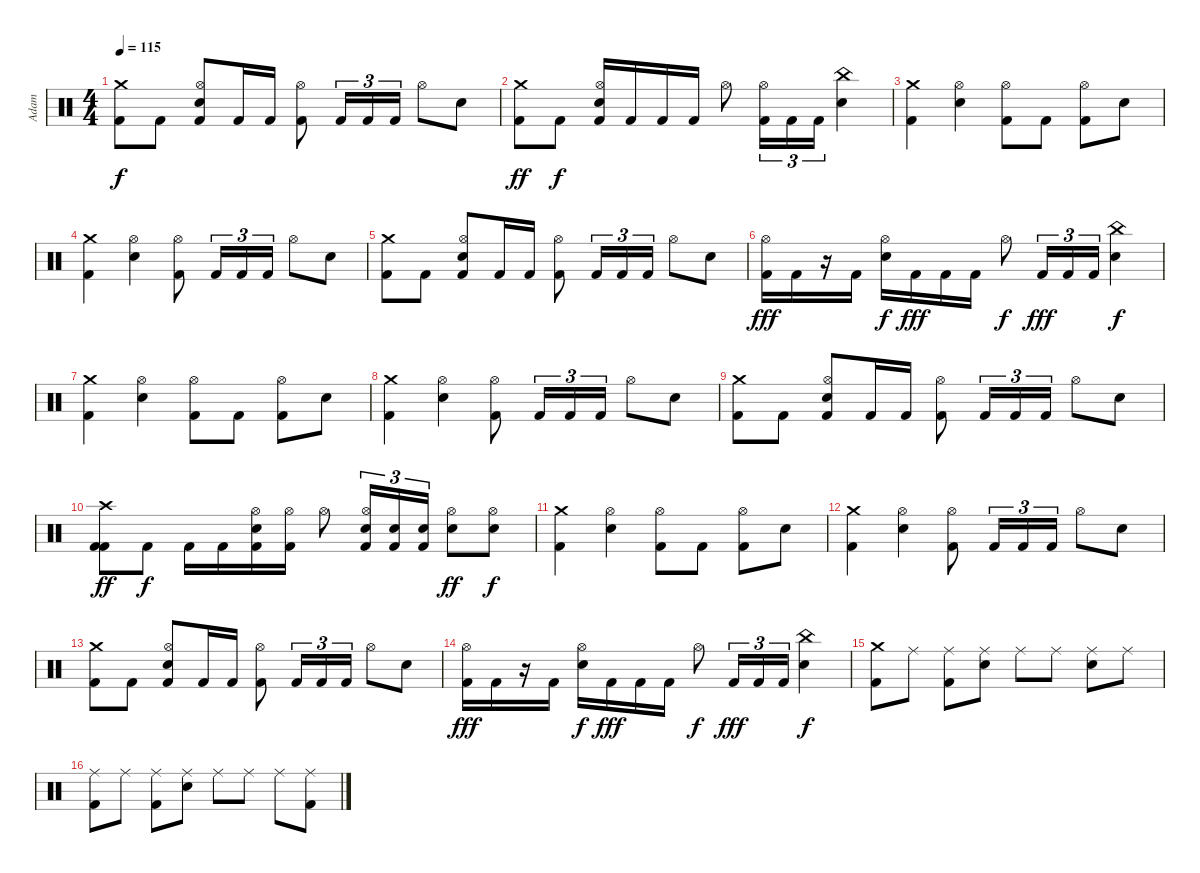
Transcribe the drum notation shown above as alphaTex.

\track ("Adam" "Adam") {instrument percussion}
\staff {score}
\articulation defaults
\ts (4 4)
\tempo 115
\clef neutral
\ks c
("Crash medium (hit)" "Kick (hit) 2").8{dy f} "Kick (hit) 2".8 ("Hi-Hat (open)" "Electric Snare (hit)" "Kick (hit) 2").8 "Kick (hit) 2".16 "Kick (hit) 2".16 ("Hi-Hat (open)" "Kick (hit) 2").8 "Kick (hit) 2".16{tu (3 2)} "Kick (hit) 2".16{tu (3 2)} "Kick (hit) 2".16{tu (3 2)} "Hi-Hat (open)".8 "Electric Snare (hit)".8 |
("Crash medium (hit)" "Kick (hit) 2").8{dy ff} "Kick (hit) 2".8{dy f} ("Hi-Hat (open)" "Electric Snare (hit)" "Kick (hit) 2").16 "Kick (hit) 2".16 "Kick (hit) 2".16 "Kick (hit) 2".16 "Hi-Hat (open)".8 ("Hi-Hat (open)" "Kick (hit) 2").16{tu (3 2)} "Kick (hit) 2".16{tu (3 2)} "Kick (hit) 2".16{tu (3 2)} ("China (hit)" "Electric Snare (hit)").4 |
("Crash medium (hit)" "Kick (hit) 2").4 ("Hi-Hat (open)" "Electric Snare (hit)").4 ("Hi-Hat (open)" "Kick (hit) 2").8 "Kick (hit) 2".8 ("Hi-Hat (open)" "Kick (hit) 2").8 "Electric Snare (hit)".8 |
("Crash medium (hit)" "Kick (hit) 2").4 ("Hi-Hat (open)" "Electric Snare (hit)").4 ("Hi-Hat (open)" "Kick (hit) 2").8 "Kick (hit) 2".16{tu (3 2)} "Kick (hit) 2".16{tu (3 2)} "Kick (hit) 2".16{tu (3 2)} "Hi-Hat (open)".8 "Electric Snare (hit)".8 |
("Crash medium (hit)" "Kick (hit) 2").8 "Kick (hit) 2".8 ("Hi-Hat (open)" "Electric Snare (hit)" "Kick (hit) 2").8 "Kick (hit) 2".16 "Kick (hit) 2".16 ("Hi-Hat (open)" "Kick (hit) 2").8 "Kick (hit) 2".16{tu (3 2)} "Kick (hit) 2".16{tu (3 2)} "Kick (hit) 2".16{tu (3 2)} "Hi-Hat (open)".8 "Electric Snare (hit)".8 |
("Hi-Hat (open)" "Kick (hit) 2").16{dy fff} "Kick (hit) 2".16 r.16 "Kick (hit) 2".16 ("Hi-Hat (open)" "Electric Snare (hit)").16{dy f} "Kick (hit) 2".16{dy fff} "Kick (hit) 2".16 "Kick (hit) 2".16 "Hi-Hat (open)".8{dy f} "Kick (hit) 2".16{tu (3 2) dy fff} "Kick (hit) 2".16{tu (3 2)} "Kick (hit) 2".16{tu (3 2)} ("China (hit)" "Snare (hit) 2").4{dy f} |
("Crash medium (hit)" "Kick (hit) 2").4 ("Hi-Hat (open)" "Electric Snare (hit)").4 ("Hi-Hat (open)" "Kick (hit) 2").8 "Kick (hit) 2".8 ("Hi-Hat (open)" "Kick (hit) 2").8 "Electric Snare (hit)".8 |
("Crash medium (hit)" "Kick (hit) 2").4 ("Hi-Hat (open)" "Electric Snare (hit)").4 ("Hi-Hat (open)" "Kick (hit) 2").8 "Kick (hit) 2".16{tu (3 2)} "Kick (hit) 2".16{tu (3 2)} "Kick (hit) 2".16{tu (3 2)} "Hi-Hat (open)".8 "Electric Snare (hit)".8 |
("Crash medium (hit)" "Kick (hit) 2").8 "Kick (hit) 2".8 ("Hi-Hat (open)" "Electric Snare (hit)" "Kick (hit) 2").8 "Kick (hit) 2".16 "Kick (hit) 2".16 ("Hi-Hat (open)" "Kick (hit) 2").8 "Kick (hit) 2".16{tu (3 2)} "Kick (hit) 2".16{tu (3 2)} "Kick (hit) 2".16{tu (3 2)} "Hi-Hat (open)".8 "Electric Snare (hit)".8 |
("Crash high (hit)" "Kick (hit) 2" "Kick (hit) 2").8{dy ff} "Kick (hit) 2".8{dy f} "Kick (hit) 2".16 "Kick (hit) 2".16 ("Hi-Hat (open)" "Electric Snare (hit)" "Kick (hit) 2").16 ("Hi-Hat (open)" "Kick (hit) 2").16 "Hi-Hat (open)".8 ("Hi-Hat (open)" "Electric Snare (hit)" "Kick (hit) 2").16{tu (3 2)} ("Electric Snare (hit)" "Kick (hit) 2").16{tu (3 2)} ("Electric Snare (hit)" "Kick (hit) 2").16{tu (3 2)} ("Hi-Hat (open)" "Electric Snare (hit)").8{dy ff} ("Hi-Hat (open)" "Electric Snare (hit)").8{dy f} |
("Crash medium (hit)" "Kick (hit) 2").4 ("Hi-Hat (open)" "Electric Snare (hit)").4 ("Hi-Hat (open)" "Kick (hit) 2").8 "Kick (hit) 2".8 ("Hi-Hat (open)" "Kick (hit) 2").8 "Electric Snare (hit)".8 |
("Crash medium (hit)" "Kick (hit) 2").4 ("Hi-Hat (open)" "Electric Snare (hit)").4 ("Hi-Hat (open)" "Kick (hit) 2").8 "Kick (hit) 2".16{tu (3 2)} "Kick (hit) 2".16{tu (3 2)} "Kick (hit) 2".16{tu (3 2)} "Hi-Hat (open)".8 "Electric Snare (hit)".8 |
("Crash medium (hit)" "Kick (hit) 2").8 "Kick (hit) 2".8 ("Hi-Hat (open)" "Electric Snare (hit)" "Kick (hit) 2").8 "Kick (hit) 2".16 "Kick (hit) 2".16 ("Hi-Hat (open)" "Kick (hit) 2").8 "Kick (hit) 2".16{tu (3 2)} "Kick (hit) 2".16{tu (3 2)} "Kick (hit) 2".16{tu (3 2)} "Hi-Hat (open)".8 "Electric Snare (hit)".8 |
("Hi-Hat (open)" "Kick (hit) 2").16{dy fff} "Kick (hit) 2".16 r.16 "Kick (hit) 2".16 ("Hi-Hat (open)" "Electric Snare (hit)").16{dy f} "Kick (hit) 2".16{dy fff} "Kick (hit) 2".16 "Kick (hit) 2".16 "Hi-Hat (open)".8{dy f} "Kick (hit) 2".16{tu (3 2) dy fff} "Kick (hit) 2".16{tu (3 2)} "Kick (hit) 2".16{tu (3 2)} ("China (hit)" "Snare (hit) 2").4{dy f} |
("Crash medium (hit)" "Kick (hit) 2").8 "Ride (middle)".8 ("Ride (middle)" "Kick (hit) 2").8 ("Ride (middle)" "Electric Snare (hit)").8 "Ride (middle)".8 "Ride (middle)".8 ("Ride (middle)" "Snare (hit) 2").8 "Ride (middle)".8 |
("Ride (middle)" "Kick (hit) 2").8 "Ride (middle)".8 ("Ride (middle)" "Kick (hit) 2").8 ("Ride (middle)" "Electric Snare (hit)").8 "Ride (middle)".8 "Ride (middle)".8 "Ride (middle)".8 ("Ride (middle)" "Kick (hit) 2").8
